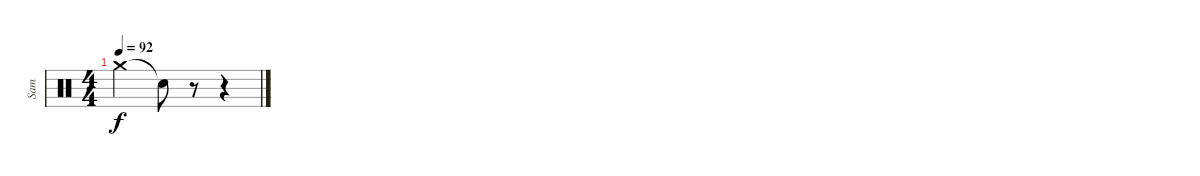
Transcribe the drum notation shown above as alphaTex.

\track ("Sam" "Sam") {instrument percussion}
\staff {score}
\articulation defaults
\ts (4 4)
\tempo 92
\clef neutral
\ks c "Crash medium (hit)"{t}.2{dy f} "Snare (hit)"{t}.8
r.8 r.4
